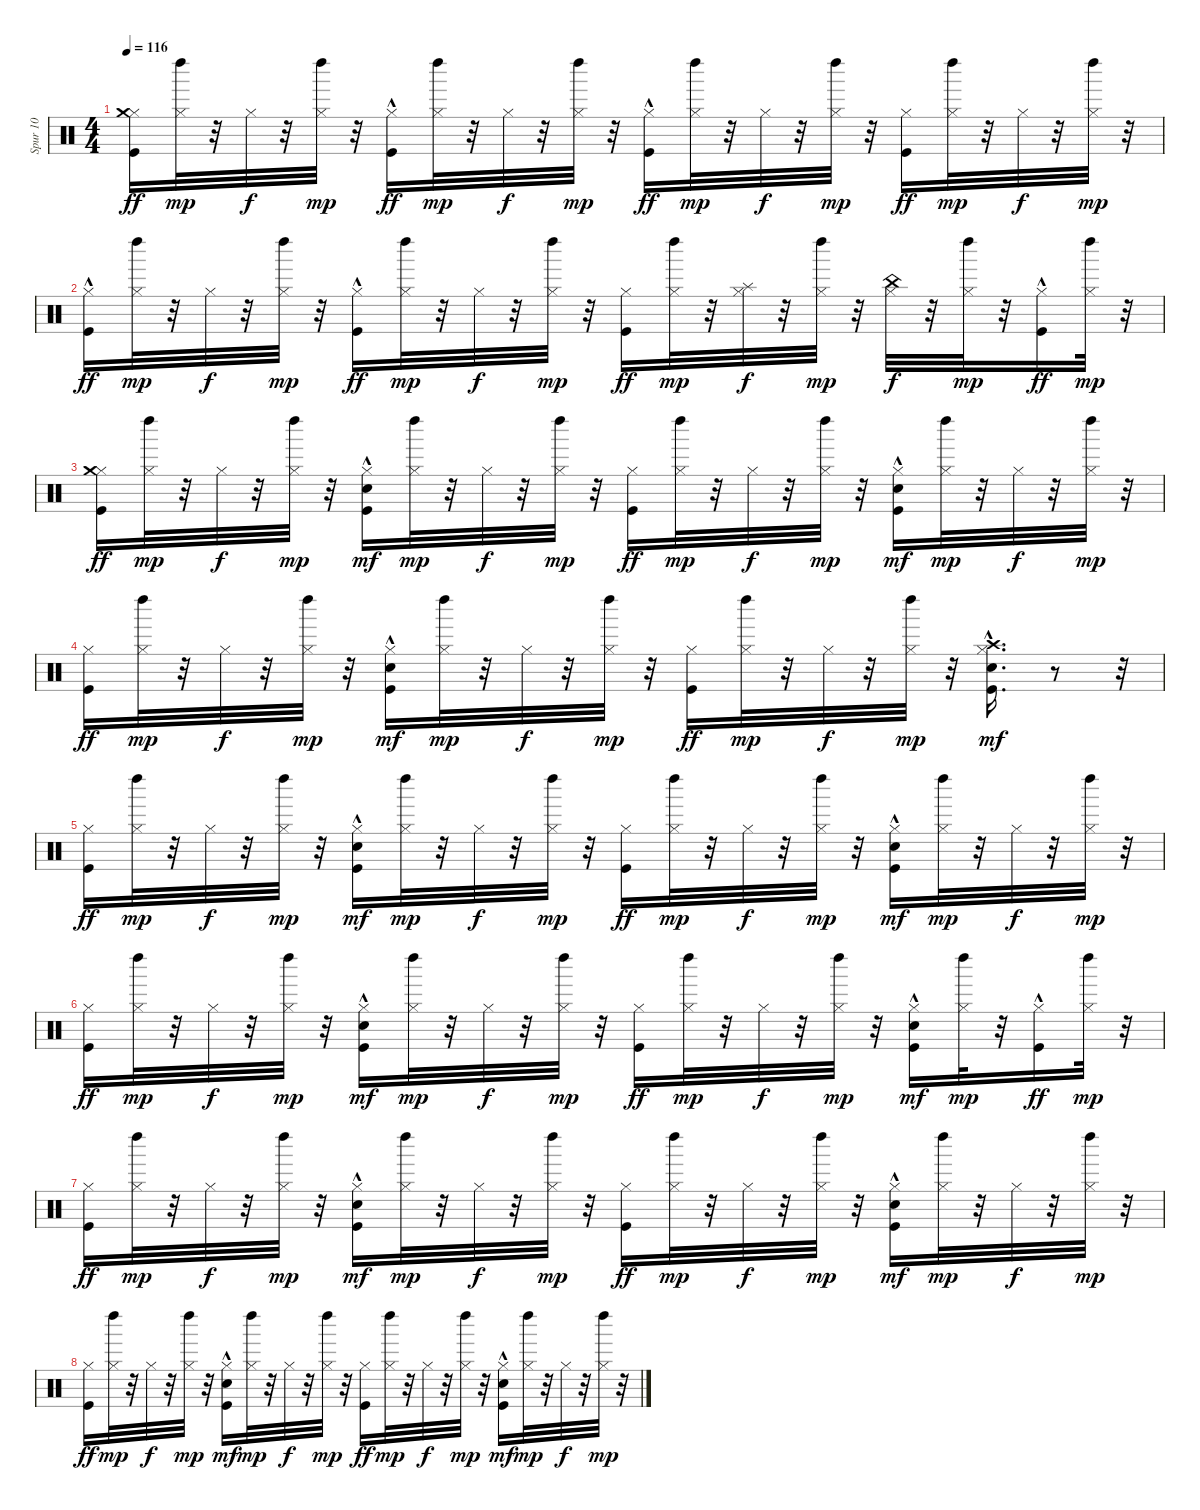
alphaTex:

\track ("Spur 10" "Spur 10") {instrument percussion}
\staff {score}
\articulation defaults
\ts (4 4)
\tempo 116
\clef neutral
\ks c
("Kick (hit)" "Hi-Hat (closed)" "Crash medium (hit)").16{dy ff} ("Left Maraca (hit)" "Hi-Hat (closed)").32{dy mp} r.32 "Hi-Hat (closed)".32{dy f} r.32 ("Left Maraca (hit)" "Hi-Hat (closed)").32{dy mp} r.32 ("Kick (hit)"{hac} "Hi-Hat (closed)").16{dy ff} ("Left Maraca (hit)" "Hi-Hat (closed)").32{dy mp} r.32 "Hi-Hat (closed)".32{dy f} r.32 ("Left Maraca (hit)" "Hi-Hat (closed)").32{dy mp} r.32 ("Kick (hit)"{hac} "Hi-Hat (closed)").16{dy ff} ("Left Maraca (hit)" "Hi-Hat (closed)").32{dy mp} r.32 "Hi-Hat (closed)".32{dy f} r.32 ("Left Maraca (hit)" "Hi-Hat (closed)").32{dy mp} r.32 ("Kick (hit)" "Hi-Hat (closed)").16{dy ff} ("Left Maraca (hit)" "Hi-Hat (closed)").32{dy mp} r.32 "Hi-Hat (closed)".32{dy f} r.32 ("Left Maraca (hit)" "Hi-Hat (closed)").32{dy mp} r.32 |
("Kick (hit)"{hac} "Hi-Hat (closed)").16{dy ff} ("Left Maraca (hit)" "Hi-Hat (closed)").32{dy mp} r.32 "Hi-Hat (closed)".32{dy f} r.32 ("Left Maraca (hit)" "Hi-Hat (closed)").32{dy mp} r.32 ("Kick (hit)"{hac} "Hi-Hat (closed)").16{dy ff} ("Left Maraca (hit)" "Hi-Hat (closed)").32{dy mp} r.32 "Hi-Hat (closed)".32{dy f} r.32 ("Left Maraca (hit)" "Hi-Hat (closed)").32{dy mp} r.32 ("Kick (hit)" "Hi-Hat (closed)").16{dy ff} ("Left Maraca (hit)" "Hi-Hat (closed)").32{dy mp} r.32 ("Splash (hit)" "Hi-Hat (closed)").32{dy f} r.32 ("Left Maraca (hit)" "Hi-Hat (closed)").32{dy mp} r.32 ("Hi-Hat (closed)" "China (hit)").32{dy f} r.32 ("Left Maraca (hit)" "Hi-Hat (closed)").32{dy mp} r.32 ("Kick (hit)"{hac} "Hi-Hat (closed)").16{dy ff} ("Left Maraca (hit)" "Hi-Hat (closed)").32{dy mp} r.32 |
("Kick (hit)" "Hi-Hat (closed)" "Crash medium (hit)").16{dy ff} ("Left Maraca (hit)" "Hi-Hat (closed)").32{dy mp} r.32 "Hi-Hat (closed)".32{dy f} r.32 ("Left Maraca (hit)" "Hi-Hat (closed)").32{dy mp} r.32 ("Kick (hit)"{hac} "Snare (hit) 2"{hac} "Hi-Hat (closed)").16{dy mf} ("Left Maraca (hit)" "Hi-Hat (closed)").32{dy mp} r.32 "Hi-Hat (closed)".32{dy f} r.32 ("Left Maraca (hit)" "Hi-Hat (closed)").32{dy mp} r.32 ("Kick (hit)" "Hi-Hat (closed)").16{dy ff} ("Left Maraca (hit)" "Hi-Hat (closed)").32{dy mp} r.32 "Hi-Hat (closed)".32{dy f} r.32 ("Left Maraca (hit)" "Hi-Hat (closed)").32{dy mp} r.32 ("Kick (hit)"{hac} "Snare (hit) 2"{hac} "Hi-Hat (closed)").16{dy mf} ("Left Maraca (hit)" "Hi-Hat (closed)").32{dy mp} r.32 "Hi-Hat (closed)".32{dy f} r.32 ("Left Maraca (hit)" "Hi-Hat (closed)").32{dy mp} r.32 |
("Kick (hit)" "Hi-Hat (closed)").16{dy ff} ("Left Maraca (hit)" "Hi-Hat (closed)").32{dy mp} r.32 "Hi-Hat (closed)".32{dy f} r.32 ("Left Maraca (hit)" "Hi-Hat (closed)").32{dy mp} r.32 ("Kick (hit)"{hac} "Snare (hit) 2"{hac} "Hi-Hat (closed)").16{dy mf} ("Left Maraca (hit)" "Hi-Hat (closed)").32{dy mp} r.32 "Hi-Hat (closed)".32{dy f} r.32 ("Left Maraca (hit)" "Hi-Hat (closed)").32{dy mp} r.32 ("Kick (hit)" "Hi-Hat (closed)").16{dy ff} ("Left Maraca (hit)" "Hi-Hat (closed)").32{dy mp} r.32 "Hi-Hat (closed)".32{dy f} r.32 ("Left Maraca (hit)" "Hi-Hat (closed)").32{dy mp} r.32 ("Kick (hit)"{hac} "Snare (hit) 2"{hac} "Hi-Hat (closed)" "Crash high (hit)").16{d dy mf} r.8 r.32 |
("Kick (hit)" "Hi-Hat (closed)").16{dy ff} ("Left Maraca (hit)" "Hi-Hat (closed)").32{dy mp} r.32 "Hi-Hat (closed)".32{dy f} r.32 ("Left Maraca (hit)" "Hi-Hat (closed)").32{dy mp} r.32 ("Kick (hit)"{hac} "Snare (hit) 2"{hac} "Hi-Hat (closed)").16{dy mf} ("Left Maraca (hit)" "Hi-Hat (closed)").32{dy mp} r.32 "Hi-Hat (closed)".32{dy f} r.32 ("Left Maraca (hit)" "Hi-Hat (closed)").32{dy mp} r.32 ("Kick (hit)" "Hi-Hat (closed)").16{dy ff} ("Left Maraca (hit)" "Hi-Hat (closed)").32{dy mp} r.32 "Hi-Hat (closed)".32{dy f} r.32 ("Left Maraca (hit)" "Hi-Hat (closed)").32{dy mp} r.32 ("Kick (hit)"{hac} "Snare (hit) 2"{hac} "Hi-Hat (closed)").16{dy mf} ("Left Maraca (hit)" "Hi-Hat (closed)").32{dy mp} r.32 "Hi-Hat (closed)".32{dy f} r.32 ("Left Maraca (hit)" "Hi-Hat (closed)").32{dy mp} r.32 |
("Kick (hit)" "Hi-Hat (closed)").16{dy ff} ("Left Maraca (hit)" "Hi-Hat (closed)").32{dy mp} r.32 "Hi-Hat (closed)".32{dy f} r.32 ("Left Maraca (hit)" "Hi-Hat (closed)").32{dy mp} r.32 ("Kick (hit)"{hac} "Snare (hit) 2"{hac} "Hi-Hat (closed)").16{dy mf} ("Left Maraca (hit)" "Hi-Hat (closed)").32{dy mp} r.32 "Hi-Hat (closed)".32{dy f} r.32 ("Left Maraca (hit)" "Hi-Hat (closed)").32{dy mp} r.32 ("Kick (hit)" "Hi-Hat (closed)").16{dy ff} ("Left Maraca (hit)" "Hi-Hat (closed)").32{dy mp} r.32 "Hi-Hat (closed)".32{dy f} r.32 ("Left Maraca (hit)" "Hi-Hat (closed)").32{dy mp} r.32 ("Kick (hit)"{hac} "Snare (hit) 2"{hac} "Hi-Hat (closed)").16{dy mf} ("Left Maraca (hit)" "Hi-Hat (closed)").32{dy mp} r.32 ("Kick (hit)"{hac} "Hi-Hat (closed)").16{dy ff} ("Left Maraca (hit)" "Hi-Hat (closed)").32{dy mp} r.32 |
("Kick (hit)" "Hi-Hat (closed)").16{dy ff} ("Left Maraca (hit)" "Hi-Hat (closed)").32{dy mp} r.32 "Hi-Hat (closed)".32{dy f} r.32 ("Left Maraca (hit)" "Hi-Hat (closed)").32{dy mp} r.32 ("Kick (hit)"{hac} "Snare (hit) 2"{hac} "Hi-Hat (closed)").16{dy mf} ("Left Maraca (hit)" "Hi-Hat (closed)").32{dy mp} r.32 "Hi-Hat (closed)".32{dy f} r.32 ("Left Maraca (hit)" "Hi-Hat (closed)").32{dy mp} r.32 ("Kick (hit)" "Hi-Hat (closed)").16{dy ff} ("Left Maraca (hit)" "Hi-Hat (closed)").32{dy mp} r.32 "Hi-Hat (closed)".32{dy f} r.32 ("Left Maraca (hit)" "Hi-Hat (closed)").32{dy mp} r.32 ("Kick (hit)"{hac} "Snare (hit) 2"{hac} "Hi-Hat (closed)").16{dy mf} ("Left Maraca (hit)" "Hi-Hat (closed)").32{dy mp} r.32 "Hi-Hat (closed)".32{dy f} r.32 ("Left Maraca (hit)" "Hi-Hat (closed)").32{dy mp} r.32 |
("Kick (hit)" "Hi-Hat (closed)").16{dy ff} ("Left Maraca (hit)" "Hi-Hat (closed)").32{dy mp} r.32 "Hi-Hat (closed)".32{dy f} r.32 ("Left Maraca (hit)" "Hi-Hat (closed)").32{dy mp} r.32 ("Kick (hit)"{hac} "Snare (hit) 2"{hac} "Hi-Hat (closed)").16{dy mf} ("Left Maraca (hit)" "Hi-Hat (closed)").32{dy mp} r.32 "Hi-Hat (closed)".32{dy f} r.32 ("Left Maraca (hit)" "Hi-Hat (closed)").32{dy mp} r.32 ("Kick (hit)" "Hi-Hat (closed)").16{dy ff} ("Left Maraca (hit)" "Hi-Hat (closed)").32{dy mp} r.32 "Hi-Hat (closed)".32{dy f} r.32 ("Left Maraca (hit)" "Hi-Hat (closed)").32{dy mp} r.32 ("Kick (hit)"{hac} "Snare (hit) 2"{hac} "Hi-Hat (closed)").16{dy mf} ("Left Maraca (hit)" "Hi-Hat (closed)").32{dy mp} r.32 "Hi-Hat (closed)".32{dy f} r.32 ("Left Maraca (hit)" "Hi-Hat (closed)").32{dy mp} r.32
